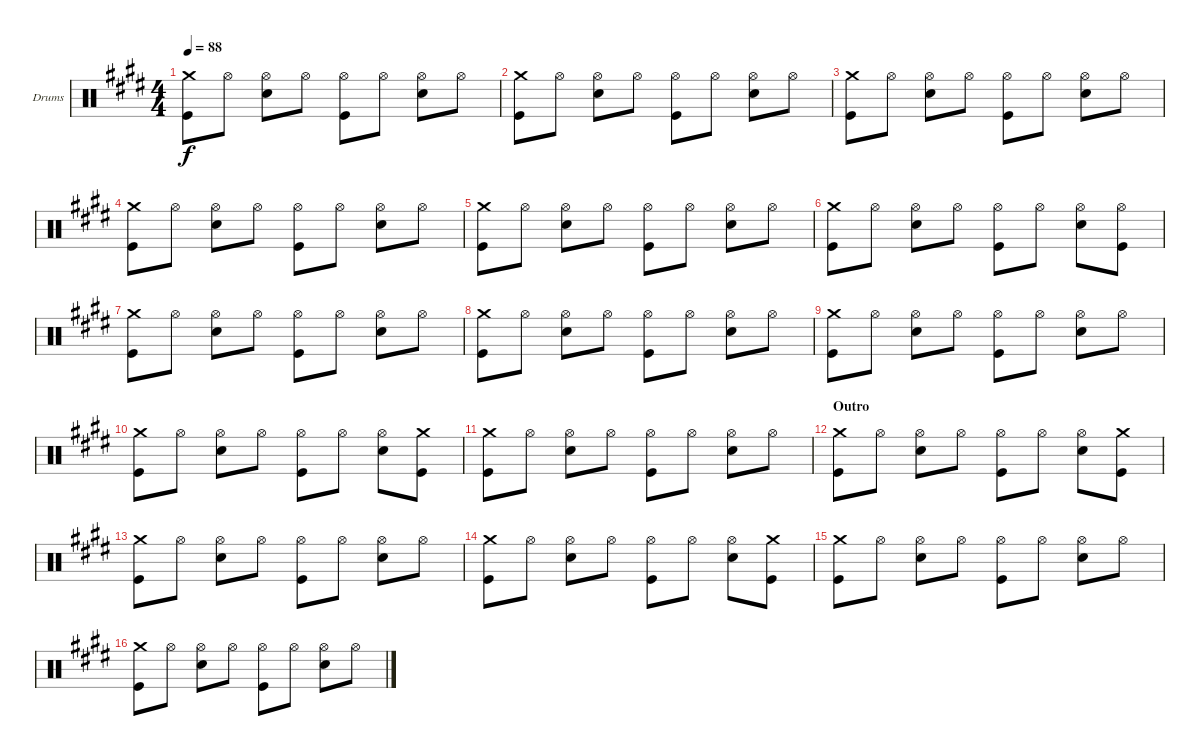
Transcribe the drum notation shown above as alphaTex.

\defaultSystemsLayout 4
\bracketExtendMode groupsimilarinstruments
\firstSystemTrackNameOrientation horizontal
\otherSystemsTrackNameOrientation horizontal
\track ("Drumkit" "Drums") {instrument percussion}
\staff {score}
\articulation defaults
\ts (4 4)
\tempo 88
\clef neutral
\ks e
("Kick (hit)" "Crash medium (hit)").8{dy f} "Hi-Hat (open)".8 ("Hi-Hat (open)" "Snare (hit) 2").8 "Hi-Hat (open)".8 ("Kick (hit)" "Hi-Hat (open)").8 "Hi-Hat (open)".8 ("Hi-Hat (open)" "Snare (hit) 2").8 "Hi-Hat (open)".8 |
("Kick (hit)" "Crash medium (hit)").8 "Hi-Hat (open)".8 ("Hi-Hat (open)" "Snare (hit) 2").8 "Hi-Hat (open)".8 ("Kick (hit)" "Hi-Hat (open)").8 "Hi-Hat (open)".8 ("Hi-Hat (open)" "Snare (hit) 2").8 "Hi-Hat (open)".8 |
("Kick (hit)" "Crash medium (hit)").8 "Hi-Hat (open)".8 ("Hi-Hat (open)" "Snare (hit) 2").8 "Hi-Hat (open)".8 ("Kick (hit)" "Hi-Hat (open)").8 "Hi-Hat (open)".8 ("Hi-Hat (open)" "Snare (hit) 2").8 "Hi-Hat (open)".8 |
("Kick (hit)" "Crash medium (hit)").8 "Hi-Hat (open)".8 ("Hi-Hat (open)" "Snare (hit) 2").8 "Hi-Hat (open)".8 ("Kick (hit)" "Hi-Hat (open)").8 "Hi-Hat (open)".8 ("Hi-Hat (open)" "Snare (hit) 2").8 "Hi-Hat (open)".8 |
("Kick (hit)" "Crash medium (hit)").8 "Hi-Hat (open)".8 ("Hi-Hat (open)" "Snare (hit) 2").8 "Hi-Hat (open)".8 ("Kick (hit)" "Hi-Hat (open)").8 "Hi-Hat (open)".8 ("Hi-Hat (open)" "Snare (hit) 2").8 "Hi-Hat (open)".8 |
("Kick (hit)" "Crash medium (hit)").8 "Hi-Hat (open)".8 ("Hi-Hat (open)" "Snare (hit) 2").8 "Hi-Hat (open)".8 ("Kick (hit)" "Hi-Hat (open)").8 "Hi-Hat (open)".8 ("Hi-Hat (open)" "Snare (hit) 2").8 ("Hi-Hat (open)" "Kick (hit)").8 |
("Kick (hit)" "Crash medium (hit)").8 "Hi-Hat (open)".8 ("Hi-Hat (open)" "Snare (hit) 2").8 "Hi-Hat (open)".8 ("Kick (hit)" "Hi-Hat (open)").8 "Hi-Hat (open)".8 ("Hi-Hat (open)" "Snare (hit) 2").8 "Hi-Hat (open)".8 |
("Kick (hit)" "Crash medium (hit)").8 "Hi-Hat (open)".8 ("Hi-Hat (open)" "Snare (hit) 2").8 "Hi-Hat (open)".8 ("Kick (hit)" "Hi-Hat (open)").8 "Hi-Hat (open)".8 ("Hi-Hat (open)" "Snare (hit) 2").8 "Hi-Hat (open)".8 |
("Kick (hit)" "Crash medium (hit)").8 "Hi-Hat (open)".8 ("Hi-Hat (open)" "Snare (hit) 2").8 "Hi-Hat (open)".8 ("Kick (hit)" "Hi-Hat (open)").8 "Hi-Hat (open)".8 ("Hi-Hat (open)" "Snare (hit) 2").8 "Hi-Hat (open)".8 |
("Kick (hit)" "Crash medium (hit)").8 "Hi-Hat (open)".8 ("Hi-Hat (open)" "Snare (hit) 2").8 "Hi-Hat (open)".8 ("Kick (hit)" "Hi-Hat (open)").8 "Hi-Hat (open)".8 ("Hi-Hat (open)" "Snare (hit) 2").8 ("Kick (hit)" "Crash medium (hit)").8 |
("Kick (hit)" "Crash medium (hit)").8 "Hi-Hat (open)".8 ("Hi-Hat (open)" "Snare (hit) 2").8 "Hi-Hat (open)".8 ("Kick (hit)" "Hi-Hat (open)").8 "Hi-Hat (open)".8 ("Hi-Hat (open)" "Snare (hit) 2").8 "Hi-Hat (open)".8 |
\section ("" "Outro")
("Kick (hit)" "Crash medium (hit)").8 "Hi-Hat (open)".8 ("Hi-Hat (open)" "Snare (hit) 2").8 "Hi-Hat (open)".8 ("Kick (hit)" "Hi-Hat (open)").8 "Hi-Hat (open)".8 ("Hi-Hat (open)" "Snare (hit) 2").8 ("Crash medium (hit)" "Kick (hit)").8 |
("Kick (hit)" "Crash medium (hit)").8 "Hi-Hat (open)".8 ("Hi-Hat (open)" "Snare (hit) 2").8 "Hi-Hat (open)".8 ("Kick (hit)" "Hi-Hat (open)").8 "Hi-Hat (open)".8 ("Hi-Hat (open)" "Snare (hit) 2").8 "Hi-Hat (open)".8 |
("Kick (hit)" "Crash medium (hit)").8 "Hi-Hat (open)".8 ("Hi-Hat (open)" "Snare (hit) 2").8 "Hi-Hat (open)".8 ("Kick (hit)" "Hi-Hat (open)").8 "Hi-Hat (open)".8 ("Hi-Hat (open)" "Snare (hit) 2").8 ("Kick (hit)" "Crash medium (hit)").8 |
("Kick (hit)" "Crash medium (hit)").8 "Hi-Hat (open)".8 ("Hi-Hat (open)" "Snare (hit) 2").8 "Hi-Hat (open)".8 ("Kick (hit)" "Hi-Hat (open)").8 "Hi-Hat (open)".8 ("Hi-Hat (open)" "Snare (hit) 2").8 "Hi-Hat (open)".8 |
("Kick (hit)" "Crash medium (hit)").8 "Hi-Hat (open)".8 ("Hi-Hat (open)" "Snare (hit) 2").8 "Hi-Hat (open)".8 ("Kick (hit)" "Hi-Hat (open)").8 "Hi-Hat (open)".8 ("Hi-Hat (open)" "Snare (hit) 2").8 "Hi-Hat (open)".8
